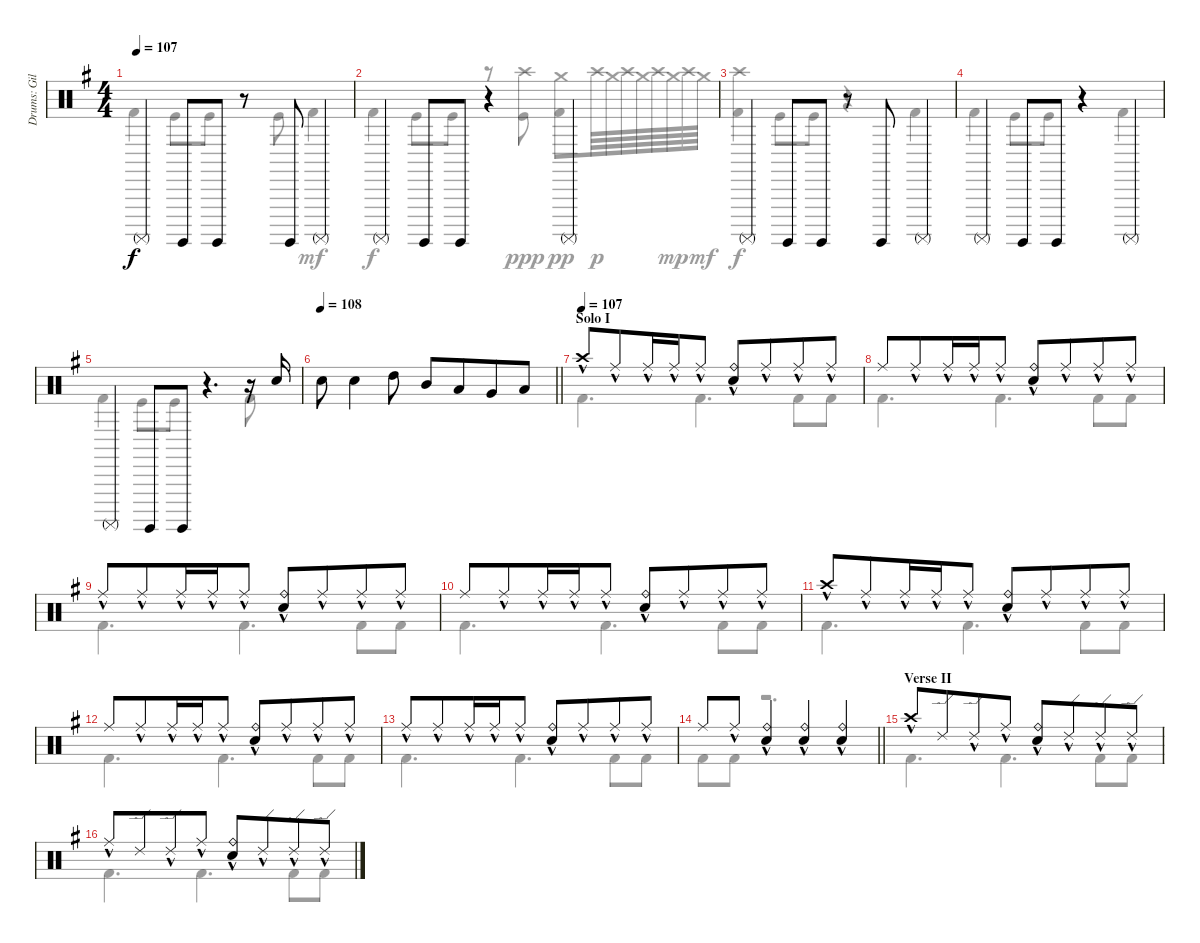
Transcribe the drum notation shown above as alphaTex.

\track ("Drums: Gil" "Drums: Gil") {instrument percussion}
\staff {score}
\articulation defaults
\voice
\ts (4 4)
\tempo 107
\clef neutral
\ks g "Surdo (mute)".4{dy f} "Surdo (hit)".8 "Surdo (hit)".8
r.8 "Surdo (hit)".8 "Surdo (mute)".4 |
"Surdo (mute)".4 "Surdo (hit)".8 "Surdo (hit)".8 r.4 "Surdo (mute)".4 |
"Surdo (mute)".4 "Surdo (hit)".8 "Surdo (hit)".8 r.8 "Surdo (hit)".8 "Surdo (mute)".4 |
"Surdo (mute)".4 "Surdo (hit)".8 "Surdo (hit)".8 r.4 "Surdo (mute)".4 |
"Surdo (mute)".4 "Surdo (hit)".8 "Surdo (hit)".8 r.4{d} r.16 "Electric Snare (hit)".16 |
\tempo 108
\barLineRight lightlight "Electric Snare (hit)".8 "Snare (hit) 2".4 "High Tom (hit)".8 "Mid Tom (hit)".8 "Low Tom (hit)".8{beam merge} "Very Low Tom (hit)".8 "Low Floor Tom (hit)".8
|
\section ("" "Solo I")
\tempo (107)
"Crash high (hit)"{hac}.8 "Ride (middle)"{hac}.8{beam merge} "Ride (middle)"{hac}.16{beam merge} "Ride (middle)"{hac}.16{beam merge} "Ride (middle)"{hac}.8{beam split} ("Ride (bell)"{hac} "Snare (hit) 2"{hac}).8 "Ride (middle)"{hac}.8{beam merge} "Ride (middle)"{hac}.8{beam merge} "Ride (middle)"{hac}.8 |
"Ride (middle)".8 "Ride (middle)"{hac}.8{beam merge} "Ride (middle)"{hac}.16{beam merge} "Ride (middle)"{hac}.16{beam merge} "Ride (middle)"{hac}.8{beam split} ("Ride (bell)"{hac} "Snare (hit) 2"{hac}).8 "Ride (middle)"{hac}.8{beam merge} "Ride (middle)"{hac}.8{beam merge} "Ride (middle)"{hac}.8 |
"Ride (middle)"{hac}.8 "Ride (middle)"{hac}.8{beam merge} "Ride (middle)"{hac}.16{beam merge} "Ride (middle)"{hac}.16{beam merge} "Ride (middle)"{hac}.8{beam split} ("Ride (bell)"{hac} "Snare (hit) 2"{hac}).8 "Ride (middle)"{hac}.8{beam merge} "Ride (middle)"{hac}.8{beam merge} "Ride (middle)"{hac}.8 |
"Ride (middle)".8 "Ride (middle)"{hac}.8{beam merge} "Ride (middle)"{hac}.16{beam merge} "Ride (middle)"{hac}.16{beam merge} "Ride (middle)"{hac}.8{beam split} ("Ride (bell)"{hac} "Snare (hit) 2"{hac}).8 "Ride (middle)"{hac}.8{beam merge} "Ride (middle)"{hac}.8{beam merge} "Ride (middle)"{hac}.8 |
"Crash high (hit)"{hac}.8 "Ride (middle)"{hac}.8{beam merge} "Ride (middle)"{hac}.16{beam merge} "Ride (middle)"{hac}.16{beam merge} "Ride (middle)"{hac}.8{beam split} ("Ride (bell)"{hac} "Snare (hit) 2"{hac}).8 "Ride (middle)"{hac}.8{beam merge} "Ride (middle)"{hac}.8{beam merge} "Ride (middle)"{hac}.8 |
"Ride (middle)".8 "Ride (middle)"{hac}.8{beam merge} "Ride (middle)"{hac}.16{beam merge} "Ride (middle)"{hac}.16{beam merge} "Ride (middle)"{hac}.8{beam split} ("Ride (bell)"{hac} "Snare (hit) 2"{hac}).8 "Ride (middle)"{hac}.8{beam merge} "Ride (middle)"{hac}.8{beam merge} "Ride (middle)"{hac}.8 |
"Ride (middle)"{hac}.8 "Ride (middle)"{hac}.8{beam merge} "Ride (middle)"{hac}.16{beam merge} "Ride (middle)"{hac}.16{beam merge} "Ride (middle)"{hac}.8{beam split} ("Ride (bell)"{hac} "Snare (hit) 2"{hac}).8 "Ride (middle)"{hac}.8{beam merge} "Ride (middle)"{hac}.8{beam merge} "Ride (middle)"{hac}.8 |
\barLineRight lightlight "Ride (middle)".8{beam merge} "Ride (middle)"{hac}.8
("Ride (bell)"{hac} "Snare (hit) 2"{hac}).4{beam merge} ("Ride (bell)"{hac} "Snare (hit) 2").4{beam merge} ("Ride (bell)"{hac} "Snare (hit) 2").4 |
\section ("" "Verse II")
"Crash high (hit)"{hac}.8 "Ride (edge) 2".8{beam merge} "Ride (edge) 2"{hac}.8{beam merge} "Ride (middle)"{hac}.8{beam split} ("Ride (bell)"{hac} "Snare (hit) 2"{hac}).8 "Ride (edge) 2"{hac}.8{beam merge} "Ride (edge) 2"{hac}.8{beam merge} "Ride (edge) 2"{hac}.8 |
"Ride (middle)"{hac}.8 "Ride (edge) 2".8{beam merge} "Ride (edge) 2"{hac}.8{beam merge} "Ride (middle)"{hac}.8{beam split} ("Ride (bell)"{hac} "Snare (hit) 2"{hac}).8 "Ride (edge) 2"{hac}.8{beam merge} "Ride (edge) 2"{hac}.8{beam merge} "Ride (edge) 2"{hac}.8
\voice
\clef neutral
\ottava regular
\simile none
\ks g "Kick (hit) 2".4{dy f} "Kick (hit)".8 "Kick (hit)".8
r.8 "Kick (hit)".8 "Kick (hit) 2".4{dy mf} |
"Kick (hit) 2".4{dy f} "Kick (hit)".8 "Kick (hit)".8 r.8 ("Crash high (hit)" "Kick (hit)").8{dy ppp} ("Crash medium (hit)" "Kick (hit) 2").8{dy pp} "Crash high (hit)".64{dy p} "Crash medium (hit)".64 "Crash high (hit)".64 "Crash medium (hit)".64 "Crash high (hit)".64 "Crash medium (hit)".64{dy mp} "Crash high (hit)".64 "Crash medium (hit)".64{dy mf} |
("Crash high (hit)" "Kick (hit) 2").4{dy f} "Kick (hit)".8 "Kick (hit)".8 r.4 "Kick (hit) 2".4 |
"Kick (hit) 2".4 "Kick (hit)".8 "Kick (hit)".8 r.4 "Kick (hit) 2".4 |
"Kick (hit) 2".4 "Kick (hit)".8 "Kick (hit)".8 r.4{d} "Kick (hit) 2".8 |
\barLineRight lightlight
|
"Kick (hit) 2".4{d} "Kick (hit) 2".4{d} "Kick (hit) 2".8 "Kick (hit) 2".8 |
"Kick (hit) 2".4{d} "Kick (hit) 2".4{d} "Kick (hit) 2".8 "Kick (hit) 2".8 |
"Kick (hit) 2".4{d} "Kick (hit) 2".4{d} "Kick (hit) 2".8 "Kick (hit) 2".8 |
"Kick (hit) 2".4{d} "Kick (hit) 2".4{d} "Kick (hit) 2".8 "Kick (hit) 2".8 |
"Kick (hit) 2".4{d} "Kick (hit) 2".4{d} "Kick (hit) 2".8 "Kick (hit) 2".8 |
"Kick (hit) 2".4{d} "Kick (hit) 2".4{d} "Kick (hit) 2".8 "Kick (hit) 2".8 |
"Kick (hit) 2".4{d} "Kick (hit) 2".4{d} "Kick (hit) 2".8 "Kick (hit) 2".8 |
\barLineRight lightlight "Kick (hit) 2".8 "Kick (hit) 2".8
r.2{d} |
"Kick (hit) 2".4{d} "Kick (hit) 2".4{d} "Kick (hit) 2".8 "Kick (hit) 2".8 |
"Kick (hit) 2".4{d} "Kick (hit) 2".4{d} "Kick (hit) 2".8 "Kick (hit) 2".8
